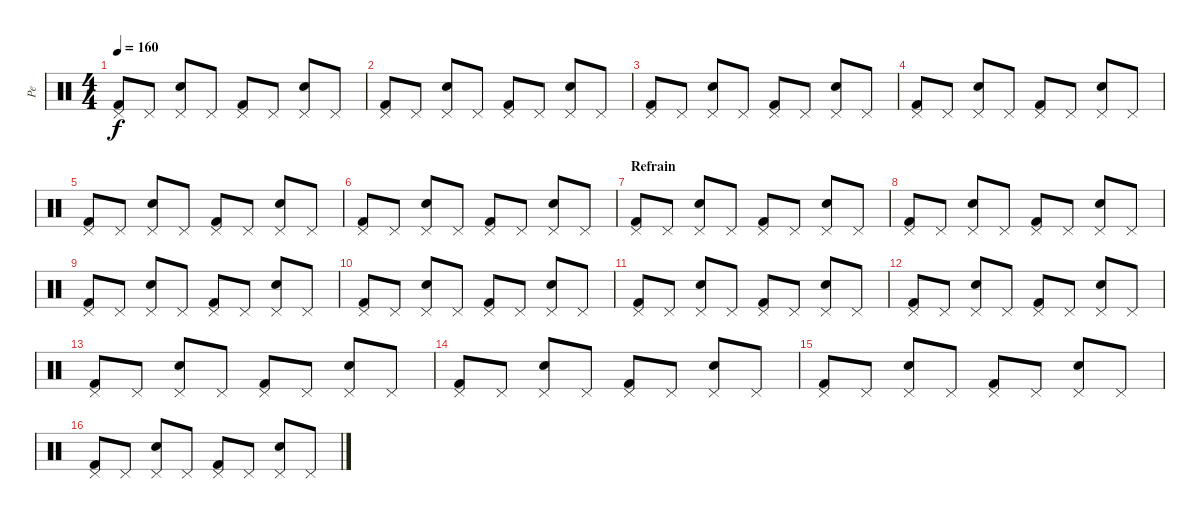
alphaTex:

\track ("Pe" "Pe") {instrument percussion}
\staff {score}
\articulation defaults
\ts (4 4)
\tempo 160
\clef neutral
\ks c
("Pedal Hi-Hat (hit)" "Kick (hit) 2").8{dy f} "Pedal Hi-Hat (hit)".8 ("Pedal Hi-Hat (hit)" "Electric Snare (hit)").8 "Pedal Hi-Hat (hit)".8 ("Pedal Hi-Hat (hit)" "Kick (hit) 2").8 "Pedal Hi-Hat (hit)".8 ("Pedal Hi-Hat (hit)" "Electric Snare (hit)").8 "Pedal Hi-Hat (hit)".8 |
("Pedal Hi-Hat (hit)" "Kick (hit) 2").8 "Pedal Hi-Hat (hit)".8 ("Pedal Hi-Hat (hit)" "Electric Snare (hit)").8 "Pedal Hi-Hat (hit)".8 ("Pedal Hi-Hat (hit)" "Kick (hit) 2").8 "Pedal Hi-Hat (hit)".8 ("Pedal Hi-Hat (hit)" "Electric Snare (hit)").8 "Pedal Hi-Hat (hit)".8 |
("Pedal Hi-Hat (hit)" "Kick (hit) 2").8 "Pedal Hi-Hat (hit)".8 ("Pedal Hi-Hat (hit)" "Electric Snare (hit)").8 "Pedal Hi-Hat (hit)".8 ("Pedal Hi-Hat (hit)" "Kick (hit) 2").8 "Pedal Hi-Hat (hit)".8 ("Pedal Hi-Hat (hit)" "Electric Snare (hit)").8 "Pedal Hi-Hat (hit)".8 |
("Pedal Hi-Hat (hit)" "Kick (hit) 2").8 "Pedal Hi-Hat (hit)".8 ("Pedal Hi-Hat (hit)" "Electric Snare (hit)").8 "Pedal Hi-Hat (hit)".8 ("Pedal Hi-Hat (hit)" "Kick (hit) 2").8 "Pedal Hi-Hat (hit)".8 ("Pedal Hi-Hat (hit)" "Electric Snare (hit)").8 "Pedal Hi-Hat (hit)".8 |
("Pedal Hi-Hat (hit)" "Kick (hit) 2").8 "Pedal Hi-Hat (hit)".8 ("Pedal Hi-Hat (hit)" "Electric Snare (hit)").8 "Pedal Hi-Hat (hit)".8 ("Pedal Hi-Hat (hit)" "Kick (hit) 2").8 "Pedal Hi-Hat (hit)".8 ("Pedal Hi-Hat (hit)" "Electric Snare (hit)").8 "Pedal Hi-Hat (hit)".8 |
("Pedal Hi-Hat (hit)" "Kick (hit) 2").8 "Pedal Hi-Hat (hit)".8 ("Pedal Hi-Hat (hit)" "Electric Snare (hit)").8 "Pedal Hi-Hat (hit)".8 ("Pedal Hi-Hat (hit)" "Kick (hit) 2").8 "Pedal Hi-Hat (hit)".8 ("Pedal Hi-Hat (hit)" "Electric Snare (hit)").8 "Pedal Hi-Hat (hit)".8 |
\section ("" "Refrain")
("Pedal Hi-Hat (hit)" "Kick (hit) 2").8 "Pedal Hi-Hat (hit)".8 ("Pedal Hi-Hat (hit)" "Electric Snare (hit)").8 "Pedal Hi-Hat (hit)".8 ("Pedal Hi-Hat (hit)" "Kick (hit) 2").8 "Pedal Hi-Hat (hit)".8 ("Pedal Hi-Hat (hit)" "Electric Snare (hit)").8 "Pedal Hi-Hat (hit)".8 |
("Pedal Hi-Hat (hit)" "Kick (hit) 2").8 "Pedal Hi-Hat (hit)".8 ("Pedal Hi-Hat (hit)" "Electric Snare (hit)").8 "Pedal Hi-Hat (hit)".8 ("Pedal Hi-Hat (hit)" "Kick (hit) 2").8 "Pedal Hi-Hat (hit)".8 ("Pedal Hi-Hat (hit)" "Electric Snare (hit)").8 "Pedal Hi-Hat (hit)".8 |
("Pedal Hi-Hat (hit)" "Kick (hit) 2").8 "Pedal Hi-Hat (hit)".8 ("Pedal Hi-Hat (hit)" "Electric Snare (hit)").8 "Pedal Hi-Hat (hit)".8 ("Pedal Hi-Hat (hit)" "Kick (hit) 2").8 "Pedal Hi-Hat (hit)".8 ("Pedal Hi-Hat (hit)" "Electric Snare (hit)").8 "Pedal Hi-Hat (hit)".8 |
("Pedal Hi-Hat (hit)" "Kick (hit) 2").8 "Pedal Hi-Hat (hit)".8 ("Pedal Hi-Hat (hit)" "Electric Snare (hit)").8 "Pedal Hi-Hat (hit)".8 ("Pedal Hi-Hat (hit)" "Kick (hit) 2").8 "Pedal Hi-Hat (hit)".8 ("Pedal Hi-Hat (hit)" "Electric Snare (hit)").8 "Pedal Hi-Hat (hit)".8 |
("Pedal Hi-Hat (hit)" "Kick (hit) 2").8 "Pedal Hi-Hat (hit)".8 ("Pedal Hi-Hat (hit)" "Electric Snare (hit)").8 "Pedal Hi-Hat (hit)".8 ("Pedal Hi-Hat (hit)" "Kick (hit) 2").8 "Pedal Hi-Hat (hit)".8 ("Pedal Hi-Hat (hit)" "Electric Snare (hit)").8 "Pedal Hi-Hat (hit)".8 |
("Pedal Hi-Hat (hit)" "Kick (hit) 2").8 "Pedal Hi-Hat (hit)".8 ("Pedal Hi-Hat (hit)" "Electric Snare (hit)").8 "Pedal Hi-Hat (hit)".8 ("Pedal Hi-Hat (hit)" "Kick (hit) 2").8 "Pedal Hi-Hat (hit)".8 ("Pedal Hi-Hat (hit)" "Electric Snare (hit)").8 "Pedal Hi-Hat (hit)".8 |
("Pedal Hi-Hat (hit)" "Kick (hit) 2").8 "Pedal Hi-Hat (hit)".8 ("Pedal Hi-Hat (hit)" "Electric Snare (hit)").8 "Pedal Hi-Hat (hit)".8 ("Pedal Hi-Hat (hit)" "Kick (hit) 2").8 "Pedal Hi-Hat (hit)".8 ("Pedal Hi-Hat (hit)" "Electric Snare (hit)").8 "Pedal Hi-Hat (hit)".8 |
("Pedal Hi-Hat (hit)" "Kick (hit) 2").8 "Pedal Hi-Hat (hit)".8 ("Pedal Hi-Hat (hit)" "Electric Snare (hit)").8 "Pedal Hi-Hat (hit)".8 ("Pedal Hi-Hat (hit)" "Kick (hit) 2").8 "Pedal Hi-Hat (hit)".8 ("Pedal Hi-Hat (hit)" "Electric Snare (hit)").8 "Pedal Hi-Hat (hit)".8 |
("Pedal Hi-Hat (hit)" "Kick (hit) 2").8 "Pedal Hi-Hat (hit)".8 ("Pedal Hi-Hat (hit)" "Electric Snare (hit)").8 "Pedal Hi-Hat (hit)".8 ("Pedal Hi-Hat (hit)" "Kick (hit) 2").8 "Pedal Hi-Hat (hit)".8 ("Pedal Hi-Hat (hit)" "Electric Snare (hit)").8 "Pedal Hi-Hat (hit)".8 |
("Pedal Hi-Hat (hit)" "Kick (hit) 2").8 "Pedal Hi-Hat (hit)".8 ("Pedal Hi-Hat (hit)" "Electric Snare (hit)").8 "Pedal Hi-Hat (hit)".8 ("Pedal Hi-Hat (hit)" "Kick (hit) 2").8 "Pedal Hi-Hat (hit)".8 ("Pedal Hi-Hat (hit)" "Electric Snare (hit)").8 "Pedal Hi-Hat (hit)".8
